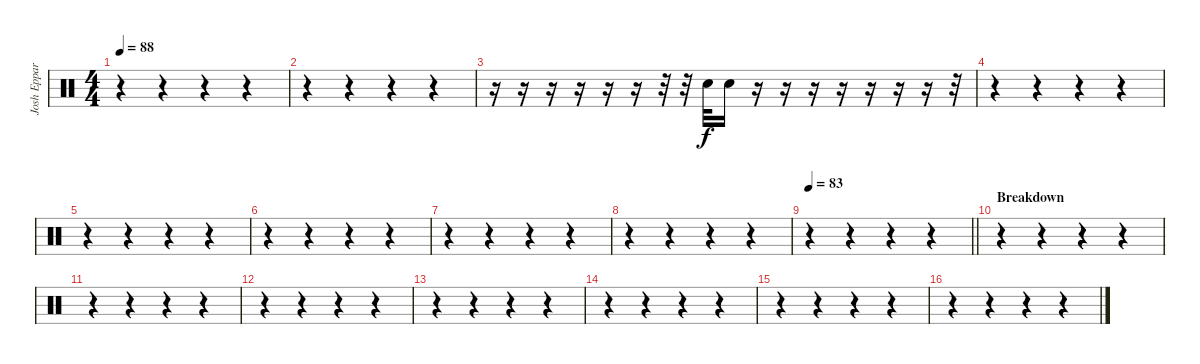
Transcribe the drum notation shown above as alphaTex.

\track ("Josh Eppard (Extra Snare)" "Josh Eppar") {instrument percussion}
\staff {score}
\articulation defaults
\ts (4 4)
\tempo 88
\clef neutral
\ks c
r.4{dy f} r.4 r.4 r.4 |
r.4 r.4 r.4 r.4 |
r.16 r.16 r.16 r.16 r.16 r.16 r.32 r.32 "Electric Snare (hit)".32 "Electric Snare (hit)".16 r.16 r.16 r.16 r.16 r.16 r.16 r.16 r.32 |
r.4 r.4 r.4 r.4 |
r.4 r.4 r.4 r.4 |
r.4 r.4 r.4 r.4 |
r.4 r.4 r.4 r.4 |
r.4 r.4 r.4 r.4 |
\tempo 83
\barLineRight lightlight
r.4 r.4 r.4 r.4 |
\section ("" "Breakdown")
r.4 r.4 r.4 r.4 |
r.4 r.4 r.4 r.4 |
r.4 r.4 r.4 r.4 |
r.4 r.4 r.4 r.4 |
r.4 r.4 r.4 r.4 |
r.4 r.4 r.4 r.4 |
r.4 r.4 r.4 r.4
